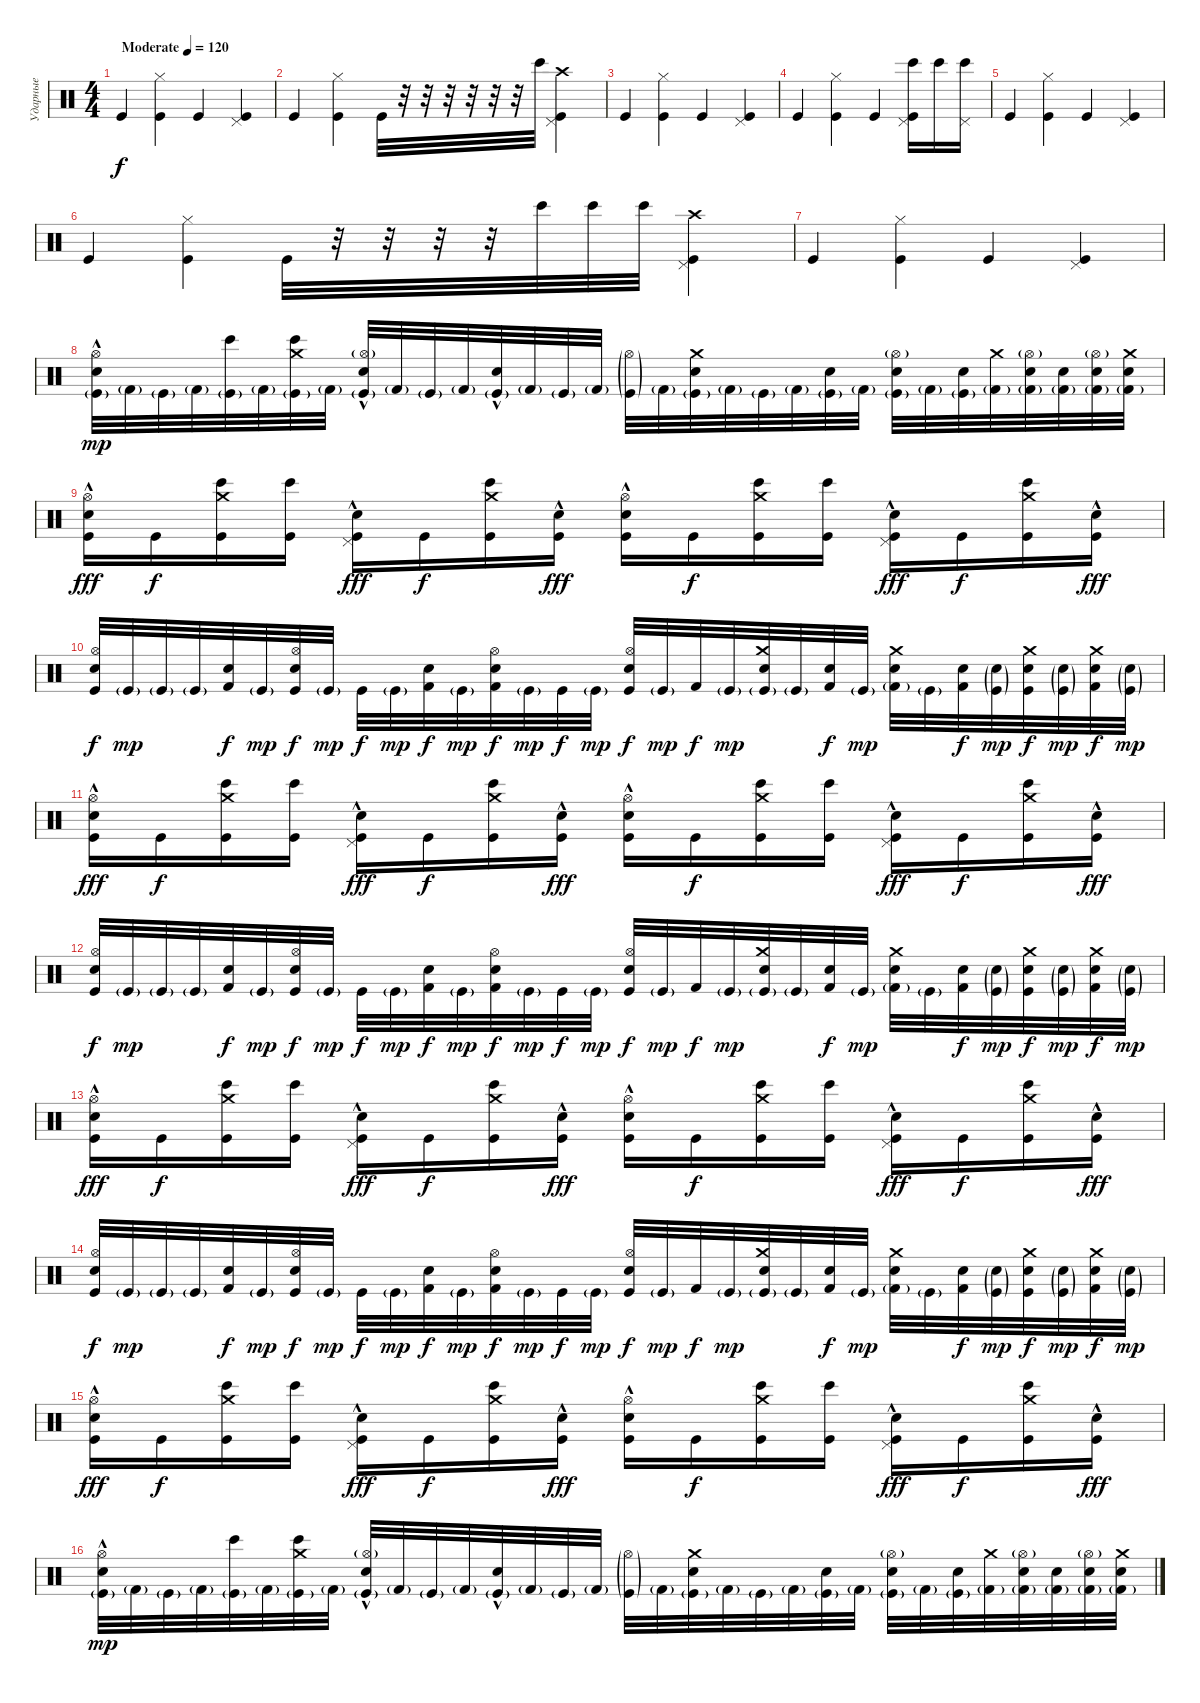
\track ("Ударные" "Ударные") {instrument percussion}
\staff {score}
\articulation defaults
\ts (4 4)
\tempo (120 "Moderate")
\clef neutral
\ks c "Kick (hit)".4{dy f}
("Hi-Hat (closed)" "Kick (hit)").4 "Kick (hit)".4 ("Pedal Hi-Hat (hit)" "Kick (hit)").4 |
"Kick (hit)".4 ("Hi-Hat (closed)" "Kick (hit)").4 "Kick (hit)".32 r.32 r.32 r.32 r.32 r.32 r.32 "Bongo High (hit)".32 ("Crash high (hit)" "Pedal Hi-Hat (hit)" "Kick (hit)").4 |
"Kick (hit)".4 ("Hi-Hat (closed)" "Kick (hit)").4 "Kick (hit)".4 ("Pedal Hi-Hat (hit)" "Kick (hit)").4 |
"Kick (hit)".4 ("Hi-Hat (closed)" "Kick (hit)").4 "Kick (hit)".4 ("Bongo High (hit)" "Pedal Hi-Hat (hit)" "Kick (hit)").16 "Bongo High (hit)".16 ("Bongo High (hit)" "Pedal Hi-Hat (hit)").16 |
"Kick (hit)".4 ("Hi-Hat (closed)" "Kick (hit)").4 "Kick (hit)".4 ("Pedal Hi-Hat (hit)" "Kick (hit)").4 |
"Kick (hit)".4 ("Hi-Hat (closed)" "Kick (hit)").4 "Kick (hit)".32 r.32 r.32 r.32 r.32 "Bongo High (hit)".32 "Bongo High (hit)".32 "Bongo High (hit)".32 ("Crash high (hit)" "Pedal Hi-Hat (hit)" "Kick (hit)").4 |
"Kick (hit)".4 ("Hi-Hat (closed)" "Kick (hit)").4 "Kick (hit)".4 ("Pedal Hi-Hat (hit)" "Kick (hit)").4 |
("Hi-Hat (open)" "Snare (hit) 2"{hac} "Kick (hit)"{g}).32{dy mp} "Kick (hit) 2"{g}.32 "Kick (hit)"{g}.32 "Kick (hit) 2"{g}.32 ("Bongo High (hit)" "Kick (hit)"{g}).32 "Kick (hit) 2"{g}.32 ("Crash medium (hit)" "Bongo High (hit)" "Kick (hit)"{g}).32 "Kick (hit) 2"{g}.32 ("Hi-Hat (open)"{g} "Electric Snare (hit)"{hac} "Kick (hit)"{g}).32 "Kick (hit) 2"{g}.32 "Kick (hit)"{g}.32 "Kick (hit) 2"{g}.32 ("Snare (hit) 2"{hac} "Kick (hit)"{g}).32 "Kick (hit) 2"{g}.32 "Kick (hit)"{g}.32 "Kick (hit) 2"{g}.32 ("Hi-Hat (open)"{g} "Kick (hit)"{g}).32 "Kick (hit) 2"{g}.32 ("Crash medium (hit)" "Snare (hit) 2" "Kick (hit)"{g}).32 "Kick (hit) 2"{g}.32 "Kick (hit)"{g}.32 "Kick (hit) 2"{g}.32 ("Snare (hit) 2" "Kick (hit)"{g}).32 "Kick (hit) 2"{g}.32 ("Hi-Hat (open)"{g} "Electric Snare (hit)" "Kick (hit)"{g}).32 "Kick (hit) 2"{g}.32 ("Electric Snare (hit)" "Kick (hit)"{g}).32 ("Crash medium (hit)" "Kick (hit) 2"{g}).32 ("Hi-Hat (open)"{g} "Electric Snare (hit)" "Kick (hit) 2"{g}).32 ("Electric Snare (hit)" "Kick (hit) 2"{g}).32 ("Hi-Hat (open)"{g} "Electric Snare (hit)" "Kick (hit) 2"{g}).32 ("Crash medium (hit)" "Electric Snare (hit)" "Kick (hit) 2"{g}).32 |
("Hi-Hat (open)" "Electric Snare (hit)"{hac} "Kick (hit)").16{dy fff} "Kick (hit)".16{dy f} ("Crash medium (hit)" "Bongo High (hit)" "Kick (hit)").16 ("Bongo High (hit)" "Kick (hit)").16 ("Pedal Hi-Hat (hit)" "Snare (hit) 2"{hac} "Kick (hit)").16{dy fff} "Kick (hit)".16{dy f} ("Crash medium (hit)" "Bongo High (hit)" "Kick (hit)").16 ("Electric Snare (hit)"{hac} "Kick (hit)").16{dy fff} ("Hi-Hat (open)" "Electric Snare (hit)"{hac} "Kick (hit)").16 "Kick (hit)".16{dy f} ("Crash medium (hit)" "Bongo High (hit)" "Kick (hit)").16 ("Bongo High (hit)" "Kick (hit)").16 ("Pedal Hi-Hat (hit)" "Snare (hit) 2"{hac} "Kick (hit)").16{dy fff} "Kick (hit)".16{dy f} ("Crash medium (hit)" "Bongo High (hit)" "Kick (hit)").16 ("Electric Snare (hit)"{hac} "Kick (hit)").16{dy fff} |
("Hi-Hat (open)" "Snare (hit) 2" "Kick (hit)").32{dy f} "Kick (hit)"{g}.32{dy mp} "Kick (hit)"{g}.32 "Kick (hit)"{g}.32 ("Electric Snare (hit)" "Kick (hit) 2").32{dy f} "Kick (hit)"{g}.32{dy mp} ("Hi-Hat (open)" "Snare (hit) 2" "Kick (hit)").32{dy f} "Kick (hit)"{g}.32{dy mp} "Kick (hit)".32{dy f} "Kick (hit)"{g}.32{dy mp} ("Electric Snare (hit)" "Kick (hit) 2").32{dy f} "Kick (hit)"{g}.32{dy mp} ("Hi-Hat (open)" "Electric Snare (hit)" "Kick (hit) 2").32{dy f} "Kick (hit)"{g}.32{dy mp} "Kick (hit)".32{dy f} "Kick (hit)"{g}.32{dy mp} ("Hi-Hat (open)" "Electric Snare (hit)" "Kick (hit)").32{dy f} "Kick (hit)"{g}.32{dy mp} "Kick (hit) 2".32{dy f} "Kick (hit)"{g}.32{dy mp} ("Crash medium (hit)" "Electric Snare (hit)" "Kick (hit)"{g}).32 "Kick (hit)"{g}.32 ("Electric Snare (hit)" "Kick (hit) 2").32{dy f} "Kick (hit)"{g}.32{dy mp} ("Crash medium (hit)" "Electric Snare (hit)" "Kick (hit) 2"{g}).32 "Kick (hit)"{g}.32 ("Snare (hit) 2" "Kick (hit) 2").32{dy f} ("Snare (hit) 2"{g} "Kick (hit)"{g}).32{dy mp} ("Crash medium (hit)" "Electric Snare (hit)" "Kick (hit)").32{dy f} ("Snare (hit) 2"{g} "Kick (hit)"{g}).32{dy mp} ("Crash medium (hit)" "Snare (hit) 2" "Kick (hit) 2").32{dy f} ("Snare (hit) 2"{g} "Kick (hit)"{g}).32{dy mp} |
("Hi-Hat (open)" "Electric Snare (hit)"{hac} "Kick (hit)").16{dy fff} "Kick (hit)".16{dy f} ("Crash medium (hit)" "Bongo High (hit)" "Kick (hit)").16 ("Bongo High (hit)" "Kick (hit)").16 ("Pedal Hi-Hat (hit)" "Snare (hit) 2"{hac} "Kick (hit)").16{dy fff} "Kick (hit)".16{dy f} ("Crash medium (hit)" "Bongo High (hit)" "Kick (hit)").16 ("Electric Snare (hit)"{hac} "Kick (hit)").16{dy fff} ("Hi-Hat (open)" "Electric Snare (hit)"{hac} "Kick (hit)").16 "Kick (hit)".16{dy f} ("Crash medium (hit)" "Bongo High (hit)" "Kick (hit)").16 ("Bongo High (hit)" "Kick (hit)").16 ("Pedal Hi-Hat (hit)" "Snare (hit) 2"{hac} "Kick (hit)").16{dy fff} "Kick (hit)".16{dy f} ("Crash medium (hit)" "Bongo High (hit)" "Kick (hit)").16 ("Electric Snare (hit)"{hac} "Kick (hit)").16{dy fff} |
("Hi-Hat (open)" "Snare (hit) 2" "Kick (hit)").32{dy f} "Kick (hit)"{g}.32{dy mp} "Kick (hit)"{g}.32 "Kick (hit)"{g}.32 ("Electric Snare (hit)" "Kick (hit) 2").32{dy f} "Kick (hit)"{g}.32{dy mp} ("Hi-Hat (open)" "Snare (hit) 2" "Kick (hit)").32{dy f} "Kick (hit)"{g}.32{dy mp} "Kick (hit)".32{dy f} "Kick (hit)"{g}.32{dy mp} ("Electric Snare (hit)" "Kick (hit) 2").32{dy f} "Kick (hit)"{g}.32{dy mp} ("Hi-Hat (open)" "Electric Snare (hit)" "Kick (hit) 2").32{dy f} "Kick (hit)"{g}.32{dy mp} "Kick (hit)".32{dy f} "Kick (hit)"{g}.32{dy mp} ("Hi-Hat (open)" "Electric Snare (hit)" "Kick (hit)").32{dy f} "Kick (hit)"{g}.32{dy mp} "Kick (hit) 2".32{dy f} "Kick (hit)"{g}.32{dy mp} ("Crash medium (hit)" "Electric Snare (hit)" "Kick (hit)"{g}).32 "Kick (hit)"{g}.32 ("Electric Snare (hit)" "Kick (hit) 2").32{dy f} "Kick (hit)"{g}.32{dy mp} ("Crash medium (hit)" "Electric Snare (hit)" "Kick (hit) 2"{g}).32 "Kick (hit)"{g}.32 ("Snare (hit) 2" "Kick (hit) 2").32{dy f} ("Snare (hit) 2"{g} "Kick (hit)"{g}).32{dy mp} ("Crash medium (hit)" "Electric Snare (hit)" "Kick (hit)").32{dy f} ("Snare (hit) 2"{g} "Kick (hit)"{g}).32{dy mp} ("Crash medium (hit)" "Snare (hit) 2" "Kick (hit) 2").32{dy f} ("Snare (hit) 2"{g} "Kick (hit)"{g}).32{dy mp} |
("Hi-Hat (open)" "Electric Snare (hit)"{hac} "Kick (hit)").16{dy fff} "Kick (hit)".16{dy f} ("Crash medium (hit)" "Bongo High (hit)" "Kick (hit)").16 ("Bongo High (hit)" "Kick (hit)").16 ("Pedal Hi-Hat (hit)" "Snare (hit) 2"{hac} "Kick (hit)").16{dy fff} "Kick (hit)".16{dy f} ("Crash medium (hit)" "Bongo High (hit)" "Kick (hit)").16 ("Electric Snare (hit)"{hac} "Kick (hit)").16{dy fff} ("Hi-Hat (open)" "Electric Snare (hit)"{hac} "Kick (hit)").16 "Kick (hit)".16{dy f} ("Crash medium (hit)" "Bongo High (hit)" "Kick (hit)").16 ("Bongo High (hit)" "Kick (hit)").16 ("Pedal Hi-Hat (hit)" "Snare (hit) 2"{hac} "Kick (hit)").16{dy fff} "Kick (hit)".16{dy f} ("Crash medium (hit)" "Bongo High (hit)" "Kick (hit)").16 ("Electric Snare (hit)"{hac} "Kick (hit)").16{dy fff} |
("Hi-Hat (open)" "Snare (hit) 2" "Kick (hit)").32{dy f} "Kick (hit)"{g}.32{dy mp} "Kick (hit)"{g}.32 "Kick (hit)"{g}.32 ("Electric Snare (hit)" "Kick (hit) 2").32{dy f} "Kick (hit)"{g}.32{dy mp} ("Hi-Hat (open)" "Snare (hit) 2" "Kick (hit)").32{dy f} "Kick (hit)"{g}.32{dy mp} "Kick (hit)".32{dy f} "Kick (hit)"{g}.32{dy mp} ("Electric Snare (hit)" "Kick (hit) 2").32{dy f} "Kick (hit)"{g}.32{dy mp} ("Hi-Hat (open)" "Electric Snare (hit)" "Kick (hit) 2").32{dy f} "Kick (hit)"{g}.32{dy mp} "Kick (hit)".32{dy f} "Kick (hit)"{g}.32{dy mp} ("Hi-Hat (open)" "Electric Snare (hit)" "Kick (hit)").32{dy f} "Kick (hit)"{g}.32{dy mp} "Kick (hit) 2".32{dy f} "Kick (hit)"{g}.32{dy mp} ("Crash medium (hit)" "Electric Snare (hit)" "Kick (hit)"{g}).32 "Kick (hit)"{g}.32 ("Electric Snare (hit)" "Kick (hit) 2").32{dy f} "Kick (hit)"{g}.32{dy mp} ("Crash medium (hit)" "Electric Snare (hit)" "Kick (hit) 2"{g}).32 "Kick (hit)"{g}.32 ("Snare (hit) 2" "Kick (hit) 2").32{dy f} ("Snare (hit) 2"{g} "Kick (hit)"{g}).32{dy mp} ("Crash medium (hit)" "Electric Snare (hit)" "Kick (hit)").32{dy f} ("Snare (hit) 2"{g} "Kick (hit)"{g}).32{dy mp} ("Crash medium (hit)" "Snare (hit) 2" "Kick (hit) 2").32{dy f} ("Snare (hit) 2"{g} "Kick (hit)"{g}).32{dy mp} |
("Hi-Hat (open)" "Electric Snare (hit)"{hac} "Kick (hit)").16{dy fff} "Kick (hit)".16{dy f} ("Crash medium (hit)" "Bongo High (hit)" "Kick (hit)").16 ("Bongo High (hit)" "Kick (hit)").16 ("Pedal Hi-Hat (hit)" "Snare (hit) 2"{hac} "Kick (hit)").16{dy fff} "Kick (hit)".16{dy f} ("Crash medium (hit)" "Bongo High (hit)" "Kick (hit)").16 ("Electric Snare (hit)"{hac} "Kick (hit)").16{dy fff} ("Hi-Hat (open)" "Electric Snare (hit)"{hac} "Kick (hit)").16 "Kick (hit)".16{dy f} ("Crash medium (hit)" "Bongo High (hit)" "Kick (hit)").16 ("Bongo High (hit)" "Kick (hit)").16 ("Pedal Hi-Hat (hit)" "Snare (hit) 2"{hac} "Kick (hit)").16{dy fff} "Kick (hit)".16{dy f} ("Crash medium (hit)" "Bongo High (hit)" "Kick (hit)").16 ("Electric Snare (hit)"{hac} "Kick (hit)").16{dy fff} |
("Hi-Hat (open)" "Snare (hit) 2"{hac} "Kick (hit)"{g}).32{dy mp} "Kick (hit) 2"{g}.32 "Kick (hit)"{g}.32 "Kick (hit) 2"{g}.32 ("Bongo High (hit)" "Kick (hit)"{g}).32 "Kick (hit) 2"{g}.32 ("Crash medium (hit)" "Bongo High (hit)" "Kick (hit)"{g}).32 "Kick (hit) 2"{g}.32 ("Hi-Hat (open)"{g} "Electric Snare (hit)"{hac} "Kick (hit)"{g}).32 "Kick (hit) 2"{g}.32 "Kick (hit)"{g}.32 "Kick (hit) 2"{g}.32 ("Snare (hit) 2"{hac} "Kick (hit)"{g}).32 "Kick (hit) 2"{g}.32 "Kick (hit)"{g}.32 "Kick (hit) 2"{g}.32 ("Hi-Hat (open)"{g} "Kick (hit)"{g}).32 "Kick (hit) 2"{g}.32 ("Crash medium (hit)" "Snare (hit) 2" "Kick (hit)"{g}).32 "Kick (hit) 2"{g}.32 "Kick (hit)"{g}.32 "Kick (hit) 2"{g}.32 ("Snare (hit) 2" "Kick (hit)"{g}).32 "Kick (hit) 2"{g}.32 ("Hi-Hat (open)"{g} "Electric Snare (hit)" "Kick (hit)"{g}).32 "Kick (hit) 2"{g}.32 ("Electric Snare (hit)" "Kick (hit)"{g}).32 ("Crash medium (hit)" "Kick (hit) 2"{g}).32 ("Hi-Hat (open)"{g} "Electric Snare (hit)" "Kick (hit) 2"{g}).32 ("Electric Snare (hit)" "Kick (hit) 2"{g}).32 ("Hi-Hat (open)"{g} "Electric Snare (hit)" "Kick (hit) 2"{g}).32 ("Crash medium (hit)" "Electric Snare (hit)" "Kick (hit) 2"{g}).32
